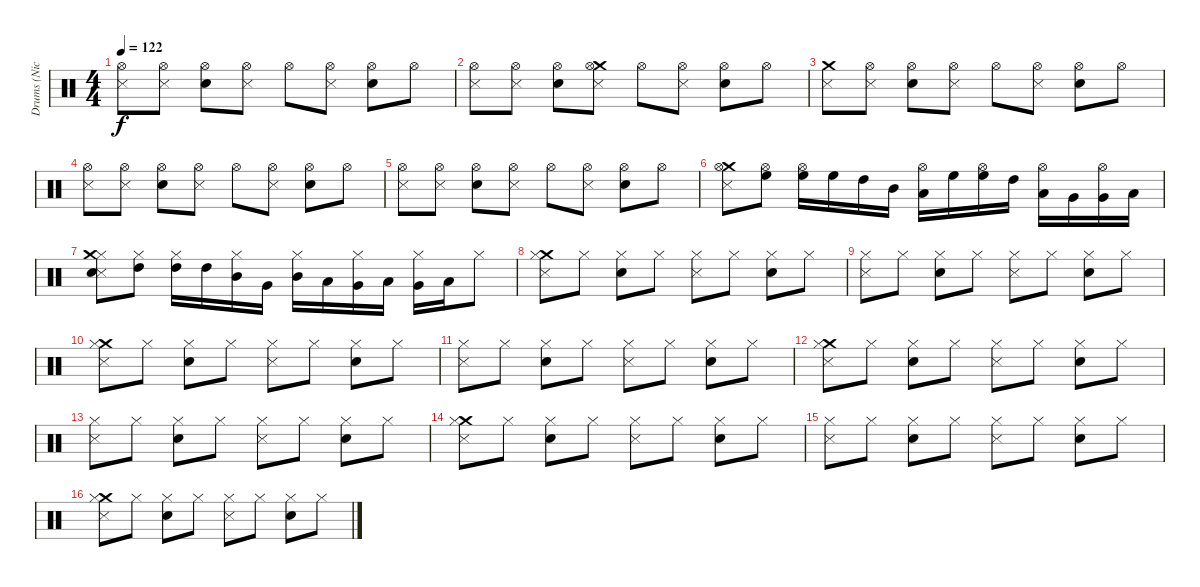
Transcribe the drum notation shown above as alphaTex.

\track ("Drums (Nick Menza)" "Drums (Nic") {instrument percussion}
\staff {score}
\articulation defaults
\ts (4 4)
\tempo 122
\clef neutral
\ks c
("Hi-Hat (open)" "Metronome (hit)").8{dy f} ("Hi-Hat (open)" "Metronome (hit)").8 ("Hi-Hat (open)" "Electric Snare (hit)").8 ("Hi-Hat (open)" "Metronome (hit)").8 "Hi-Hat (open)".8 ("Metronome (hit)" "Hi-Hat (open)").8 ("Electric Snare (hit)" "Hi-Hat (open)").8 "Hi-Hat (open)".8 |
("Hi-Hat (open)" "Metronome (hit)").8 ("Hi-Hat (open)" "Metronome (hit)").8 ("Hi-Hat (open)" "Electric Snare (hit)").8 ("Crash medium (hit)" "Hi-Hat (open)" "Metronome (hit)").8 "Hi-Hat (open)".8 ("Metronome (hit)" "Hi-Hat (open)").8 ("Electric Snare (hit)" "Hi-Hat (open)").8 "Hi-Hat (open)".8 |
("Crash medium (hit)" "Metronome (hit)").8 ("Hi-Hat (open)" "Metronome (hit)").8 ("Hi-Hat (open)" "Electric Snare (hit)").8 ("Hi-Hat (open)" "Metronome (hit)").8 "Hi-Hat (open)".8 ("Metronome (hit)" "Hi-Hat (open)").8 ("Electric Snare (hit)" "Hi-Hat (open)").8 "Hi-Hat (open)".8 |
("Hi-Hat (open)" "Metronome (hit)").8 ("Hi-Hat (open)" "Metronome (hit)").8 ("Hi-Hat (open)" "Electric Snare (hit)").8 ("Hi-Hat (open)" "Metronome (hit)").8 "Hi-Hat (open)".8 ("Metronome (hit)" "Hi-Hat (open)").8 ("Electric Snare (hit)" "Hi-Hat (open)").8 "Hi-Hat (open)".8 |
("Hi-Hat (open)" "Metronome (hit)").8 ("Hi-Hat (open)" "Metronome (hit)").8 ("Hi-Hat (open)" "Electric Snare (hit)").8 ("Hi-Hat (open)" "Metronome (hit)").8 "Hi-Hat (open)".8 ("Metronome (hit)" "Hi-Hat (open)").8 ("Electric Snare (hit)" "Hi-Hat (open)").8 "Hi-Hat (open)".8 |
("Crash medium (hit)" "Hi-Hat (open)" "Metronome (hit)").8 ("High Floor Tom (hit)" "Hi-Hat (open)").8 ("High Floor Tom (hit)" "Hi-Hat (open)").16 "High Floor Tom (hit)".16 "High Tom (hit)".16 "Mid Tom (hit)".16 ("Low Tom (hit)" "Hi-Hat (open)").16 "High Floor Tom (hit)".16 ("High Floor Tom (hit)" "Hi-Hat (open)").16 "High Tom (hit)".16 ("Low Tom (hit)" "Hi-Hat (open)").16 "Very Low Tom (hit)".16 ("Very Low Tom (hit)" "Hi-Hat (open)").16 "Low Floor Tom (hit)".16 |
("Hi-Hat (closed)" "Metronome (hit)" "Electric Snare (hit)" "Crash medium (hit)").8 ("Hi-Hat (closed)" "High Tom (hit)").8 ("Hi-Hat (closed)" "High Tom (hit)").16 "High Tom (hit)".16 ("Hi-Hat (closed)" "Mid Tom (hit)").16 "Very Low Tom (hit)".16 ("Hi-Hat (closed)" "Mid Tom (hit)").16 "Low Tom (hit)".16 ("Hi-Hat (closed)" "Very Low Tom (hit)").16 "Low Tom (hit)".16 ("Hi-Hat (closed)" "Very Low Tom (hit)").16 "Low Floor Tom (hit)".16 "Hi-Hat (closed)".8 |
("Crash medium (hit)" "Hi-Hat (closed)" "Metronome (hit)").8 "Hi-Hat (closed)".8 ("Hi-Hat (closed)" "Electric Snare (hit)").8 "Hi-Hat (closed)".8 ("Hi-Hat (closed)" "Metronome (hit)").8 "Hi-Hat (closed)".8 ("Hi-Hat (closed)" "Electric Snare (hit)").8 "Hi-Hat (closed)".8 |
("Hi-Hat (closed)" "Metronome (hit)").8 "Hi-Hat (closed)".8 ("Hi-Hat (closed)" "Electric Snare (hit)").8 "Hi-Hat (closed)".8 ("Hi-Hat (closed)" "Metronome (hit)").8 "Hi-Hat (closed)".8 ("Hi-Hat (closed)" "Electric Snare (hit)").8 "Hi-Hat (closed)".8 |
("Crash medium (hit)" "Hi-Hat (closed)" "Metronome (hit)").8 "Hi-Hat (closed)".8 ("Hi-Hat (closed)" "Electric Snare (hit)").8 "Hi-Hat (closed)".8 ("Hi-Hat (closed)" "Metronome (hit)").8 "Hi-Hat (closed)".8 ("Hi-Hat (closed)" "Electric Snare (hit)").8 "Hi-Hat (closed)".8 |
("Hi-Hat (closed)" "Metronome (hit)").8 "Hi-Hat (closed)".8 ("Hi-Hat (closed)" "Electric Snare (hit)").8 "Hi-Hat (closed)".8 ("Hi-Hat (closed)" "Metronome (hit)").8 "Hi-Hat (closed)".8 ("Hi-Hat (closed)" "Electric Snare (hit)").8 "Hi-Hat (closed)".8 |
("Crash medium (hit)" "Hi-Hat (closed)" "Metronome (hit)").8 "Hi-Hat (closed)".8 ("Hi-Hat (closed)" "Electric Snare (hit)").8 "Hi-Hat (closed)".8 ("Hi-Hat (closed)" "Metronome (hit)").8 "Hi-Hat (closed)".8 ("Hi-Hat (closed)" "Electric Snare (hit)").8 "Hi-Hat (closed)".8 |
("Hi-Hat (closed)" "Metronome (hit)").8 "Hi-Hat (closed)".8 ("Hi-Hat (closed)" "Electric Snare (hit)").8 "Hi-Hat (closed)".8 ("Hi-Hat (closed)" "Metronome (hit)").8 "Hi-Hat (closed)".8 ("Hi-Hat (closed)" "Electric Snare (hit)").8 "Hi-Hat (closed)".8 |
("Crash medium (hit)" "Hi-Hat (closed)" "Metronome (hit)").8 "Hi-Hat (closed)".8 ("Hi-Hat (closed)" "Electric Snare (hit)").8 "Hi-Hat (closed)".8 ("Hi-Hat (closed)" "Metronome (hit)").8 "Hi-Hat (closed)".8 ("Hi-Hat (closed)" "Electric Snare (hit)").8 "Hi-Hat (closed)".8 |
("Hi-Hat (closed)" "Metronome (hit)").8 "Hi-Hat (closed)".8 ("Hi-Hat (closed)" "Electric Snare (hit)").8 "Hi-Hat (closed)".8 ("Hi-Hat (closed)" "Metronome (hit)").8 "Hi-Hat (closed)".8 ("Hi-Hat (closed)" "Electric Snare (hit)").8 "Hi-Hat (closed)".8 |
("Crash medium (hit)" "Hi-Hat (closed)" "Metronome (hit)").8 "Hi-Hat (closed)".8 ("Hi-Hat (closed)" "Electric Snare (hit)").8 "Hi-Hat (closed)".8 ("Hi-Hat (closed)" "Metronome (hit)").8 "Hi-Hat (closed)".8 ("Hi-Hat (closed)" "Electric Snare (hit)").8 "Hi-Hat (closed)".8
